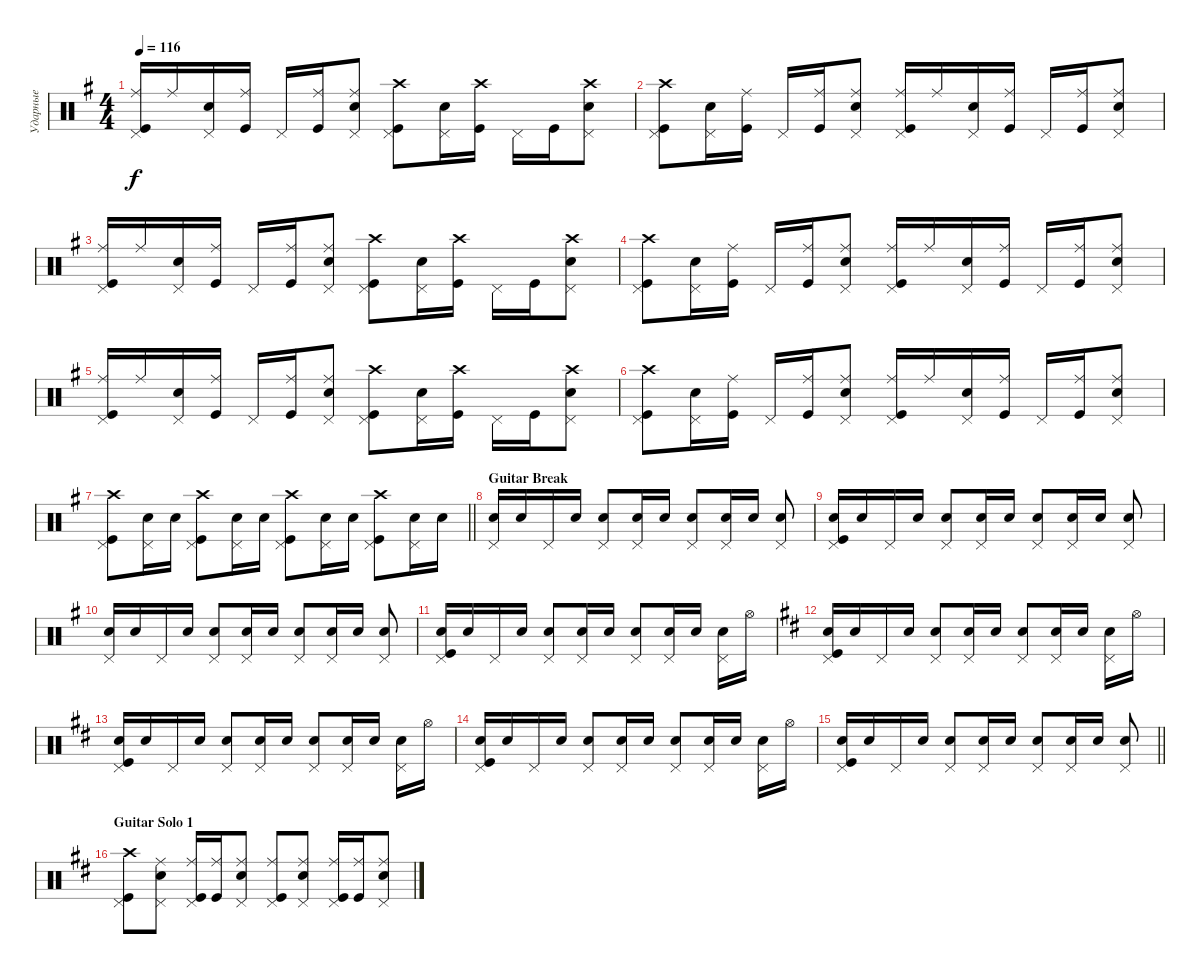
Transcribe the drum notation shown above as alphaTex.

\track ("Ударные" "Ударные") {instrument percussion}
\staff {score}
\articulation defaults
\ts (4 4)
\tempo 116
\clef neutral
\ks eminor
("Kick (hit)" "Ride (middle)" "Pedal Hi-Hat (hit)").16{dy f} "Ride (middle)".16 ("Snare (hit) 2" "Pedal Hi-Hat (hit)").16 ("Kick (hit)" "Ride (middle)").16 "Pedal Hi-Hat (hit)".16 ("Ride (middle)" "Kick (hit)").16 ("Snare (hit) 2" "Ride (middle)" "Pedal Hi-Hat (hit)").8 ("Kick (hit)" "Crash high (hit)" "Pedal Hi-Hat (hit)").8 ("Snare (hit) 2" "Pedal Hi-Hat (hit)").16 ("Kick (hit)" "Crash high (hit)").16 "Pedal Hi-Hat (hit)".16 "Kick (hit)".16 ("Crash high (hit)" "Snare (hit) 2" "Pedal Hi-Hat (hit)").8 |
("Kick (hit)" "Crash high (hit)" "Pedal Hi-Hat (hit)").8 ("Snare (hit) 2" "Pedal Hi-Hat (hit)").16 ("Kick (hit)" "Ride (middle)").16 "Pedal Hi-Hat (hit)".16 ("Ride (middle)" "Kick (hit)").16 ("Snare (hit) 2" "Ride (middle)" "Pedal Hi-Hat (hit)").8 ("Kick (hit)" "Ride (middle)" "Pedal Hi-Hat (hit)").16 "Ride (middle)".16 ("Snare (hit) 2" "Pedal Hi-Hat (hit)").16 ("Kick (hit)" "Ride (middle)").16 "Pedal Hi-Hat (hit)".16 ("Ride (middle)" "Kick (hit)").16 ("Ride (middle)" "Snare (hit) 2" "Pedal Hi-Hat (hit)").8 |
("Kick (hit)" "Ride (middle)" "Pedal Hi-Hat (hit)").16 "Ride (middle)".16 ("Snare (hit) 2" "Pedal Hi-Hat (hit)").16 ("Kick (hit)" "Ride (middle)").16 "Pedal Hi-Hat (hit)".16 ("Ride (middle)" "Kick (hit)").16 ("Snare (hit) 2" "Ride (middle)" "Pedal Hi-Hat (hit)").8 ("Kick (hit)" "Crash high (hit)" "Pedal Hi-Hat (hit)").8 ("Snare (hit) 2" "Pedal Hi-Hat (hit)").16 ("Kick (hit)" "Crash high (hit)").16 "Pedal Hi-Hat (hit)".16 "Kick (hit)".16 ("Crash high (hit)" "Snare (hit) 2" "Pedal Hi-Hat (hit)").8 |
("Kick (hit)" "Crash high (hit)" "Pedal Hi-Hat (hit)").8 ("Snare (hit) 2" "Pedal Hi-Hat (hit)").16 ("Kick (hit)" "Ride (middle)").16 "Pedal Hi-Hat (hit)".16 ("Ride (middle)" "Kick (hit)").16 ("Snare (hit) 2" "Ride (middle)" "Pedal Hi-Hat (hit)").8 ("Kick (hit)" "Ride (middle)" "Pedal Hi-Hat (hit)").16 "Ride (middle)".16 ("Snare (hit) 2" "Pedal Hi-Hat (hit)").16 ("Kick (hit)" "Ride (middle)").16 "Pedal Hi-Hat (hit)".16 ("Ride (middle)" "Kick (hit)").16 ("Ride (middle)" "Snare (hit) 2" "Pedal Hi-Hat (hit)").8 |
("Kick (hit)" "Ride (middle)" "Pedal Hi-Hat (hit)").16 "Ride (middle)".16 ("Snare (hit) 2" "Pedal Hi-Hat (hit)").16 ("Kick (hit)" "Ride (middle)").16 "Pedal Hi-Hat (hit)".16 ("Ride (middle)" "Kick (hit)").16 ("Snare (hit) 2" "Ride (middle)" "Pedal Hi-Hat (hit)").8 ("Kick (hit)" "Crash high (hit)" "Pedal Hi-Hat (hit)").8 ("Snare (hit) 2" "Pedal Hi-Hat (hit)").16 ("Kick (hit)" "Crash high (hit)").16 "Pedal Hi-Hat (hit)".16 "Kick (hit)".16 ("Crash high (hit)" "Snare (hit) 2" "Pedal Hi-Hat (hit)").8 |
("Kick (hit)" "Crash high (hit)" "Pedal Hi-Hat (hit)").8 ("Snare (hit) 2" "Pedal Hi-Hat (hit)").16 ("Kick (hit)" "Ride (middle)").16 "Pedal Hi-Hat (hit)".16 ("Ride (middle)" "Kick (hit)").16 ("Snare (hit) 2" "Ride (middle)" "Pedal Hi-Hat (hit)").8 ("Kick (hit)" "Ride (middle)" "Pedal Hi-Hat (hit)").16 "Ride (middle)".16 ("Snare (hit) 2" "Pedal Hi-Hat (hit)").16 ("Kick (hit)" "Ride (middle)").16 "Pedal Hi-Hat (hit)".16 ("Ride (middle)" "Kick (hit)").16 ("Ride (middle)" "Snare (hit) 2" "Pedal Hi-Hat (hit)").8 |
\barLineRight lightlight
("Kick (hit)" "Crash high (hit)" "Pedal Hi-Hat (hit)").8 ("Snare (hit) 2" "Pedal Hi-Hat (hit)").16 "Snare (hit) 2".16 ("Kick (hit)" "Crash high (hit)" "Pedal Hi-Hat (hit)").8 ("Snare (hit) 2" "Pedal Hi-Hat (hit)").16 "Snare (hit) 2".16 ("Kick (hit)" "Crash high (hit)" "Pedal Hi-Hat (hit)").8 ("Snare (hit) 2" "Pedal Hi-Hat (hit)").16 "Snare (hit) 2".16 ("Kick (hit)" "Crash high (hit)" "Pedal Hi-Hat (hit)").8 ("Snare (hit) 2" "Pedal Hi-Hat (hit)").16 "Snare (hit) 2".16 |
\section ("" "Guitar Break")
("Pedal Hi-Hat (hit)" "Snare (hit) 2").16 "Snare (hit) 2".16 "Pedal Hi-Hat (hit)".16 "Snare (hit) 2".16 ("Snare (hit) 2" "Pedal Hi-Hat (hit)").8 ("Snare (hit) 2" "Pedal Hi-Hat (hit)").16 "Snare (hit) 2".16 ("Snare (hit) 2" "Pedal Hi-Hat (hit)").8 ("Snare (hit) 2" "Pedal Hi-Hat (hit)").16 "Snare (hit) 2".16 ("Snare (hit) 2" "Pedal Hi-Hat (hit)").8 |
("Pedal Hi-Hat (hit)" "Snare (hit) 2" "Kick (hit)").16 "Snare (hit) 2".16 "Pedal Hi-Hat (hit)".16 "Snare (hit) 2".16 ("Snare (hit) 2" "Pedal Hi-Hat (hit)").8 ("Snare (hit) 2" "Pedal Hi-Hat (hit)").16 "Snare (hit) 2".16 ("Snare (hit) 2" "Pedal Hi-Hat (hit)").8 ("Snare (hit) 2" "Pedal Hi-Hat (hit)").16 "Snare (hit) 2".16 ("Snare (hit) 2" "Pedal Hi-Hat (hit)").8 |
("Pedal Hi-Hat (hit)" "Snare (hit) 2").16 "Snare (hit) 2".16 "Pedal Hi-Hat (hit)".16 "Snare (hit) 2".16 ("Snare (hit) 2" "Pedal Hi-Hat (hit)").8 ("Snare (hit) 2" "Pedal Hi-Hat (hit)").16 "Snare (hit) 2".16 ("Snare (hit) 2" "Pedal Hi-Hat (hit)").8 ("Snare (hit) 2" "Pedal Hi-Hat (hit)").16 "Snare (hit) 2".16 ("Snare (hit) 2" "Pedal Hi-Hat (hit)").8 |
("Pedal Hi-Hat (hit)" "Snare (hit) 2" "Kick (hit)").16 "Snare (hit) 2".16 "Pedal Hi-Hat (hit)".16 "Snare (hit) 2".16 ("Snare (hit) 2" "Pedal Hi-Hat (hit)").8 ("Snare (hit) 2" "Pedal Hi-Hat (hit)").16 "Snare (hit) 2".16 ("Snare (hit) 2" "Pedal Hi-Hat (hit)").8 ("Snare (hit) 2" "Pedal Hi-Hat (hit)").16 "Snare (hit) 2".16 ("Snare (hit) 2" "Pedal Hi-Hat (hit)").16 "Hi-Hat (open)".16 |
\ks bminor
("Pedal Hi-Hat (hit)" "Snare (hit) 2" "Kick (hit)").16 "Snare (hit) 2".16 "Pedal Hi-Hat (hit)".16 "Snare (hit) 2".16 ("Snare (hit) 2" "Pedal Hi-Hat (hit)").8 ("Snare (hit) 2" "Pedal Hi-Hat (hit)").16 "Snare (hit) 2".16 ("Snare (hit) 2" "Pedal Hi-Hat (hit)").8 ("Snare (hit) 2" "Pedal Hi-Hat (hit)").16 "Snare (hit) 2".16 ("Snare (hit) 2" "Pedal Hi-Hat (hit)").16 "Hi-Hat (open)".16 |
("Pedal Hi-Hat (hit)" "Snare (hit) 2" "Kick (hit)").16 "Snare (hit) 2".16 "Pedal Hi-Hat (hit)".16 "Snare (hit) 2".16 ("Snare (hit) 2" "Pedal Hi-Hat (hit)").8 ("Snare (hit) 2" "Pedal Hi-Hat (hit)").16 "Snare (hit) 2".16 ("Snare (hit) 2" "Pedal Hi-Hat (hit)").8 ("Snare (hit) 2" "Pedal Hi-Hat (hit)").16 "Snare (hit) 2".16 ("Snare (hit) 2" "Pedal Hi-Hat (hit)").16 "Hi-Hat (open)".16 |
("Pedal Hi-Hat (hit)" "Snare (hit) 2" "Kick (hit)").16 "Snare (hit) 2".16 "Pedal Hi-Hat (hit)".16 "Snare (hit) 2".16 ("Snare (hit) 2" "Pedal Hi-Hat (hit)").8 ("Snare (hit) 2" "Pedal Hi-Hat (hit)").16 "Snare (hit) 2".16 ("Snare (hit) 2" "Pedal Hi-Hat (hit)").8 ("Snare (hit) 2" "Pedal Hi-Hat (hit)").16 "Snare (hit) 2".16 ("Snare (hit) 2" "Pedal Hi-Hat (hit)").16 "Hi-Hat (open)".16 |
\barLineRight lightlight
("Pedal Hi-Hat (hit)" "Snare (hit) 2" "Kick (hit)").16 "Snare (hit) 2".16 "Pedal Hi-Hat (hit)".16 "Snare (hit) 2".16 ("Snare (hit) 2" "Pedal Hi-Hat (hit)").8 ("Snare (hit) 2" "Pedal Hi-Hat (hit)").16 "Snare (hit) 2".16 ("Snare (hit) 2" "Pedal Hi-Hat (hit)").8 ("Snare (hit) 2" "Pedal Hi-Hat (hit)").16 "Snare (hit) 2".16 ("Snare (hit) 2" "Pedal Hi-Hat (hit)").8 |
\section ("" "Guitar Solo 1")
("Kick (hit)" "Crash high (hit)" "Pedal Hi-Hat (hit)").8 ("Snare (hit) 2" "Pedal Hi-Hat (hit)" "Ride (middle)").8 ("Pedal Hi-Hat (hit)" "Kick (hit)" "Ride (middle)").16 ("Kick (hit)" "Ride (middle)").16 ("Snare (hit) 2" "Pedal Hi-Hat (hit)" "Ride (middle)").8 ("Kick (hit)" "Pedal Hi-Hat (hit)" "Ride (middle)").8 ("Snare (hit) 2" "Pedal Hi-Hat (hit)" "Ride (middle)").8 ("Kick (hit)" "Pedal Hi-Hat (hit)" "Ride (middle)").16 ("Kick (hit)" "Ride (middle)").16 ("Snare (hit) 2" "Pedal Hi-Hat (hit)" "Ride (middle)").8
